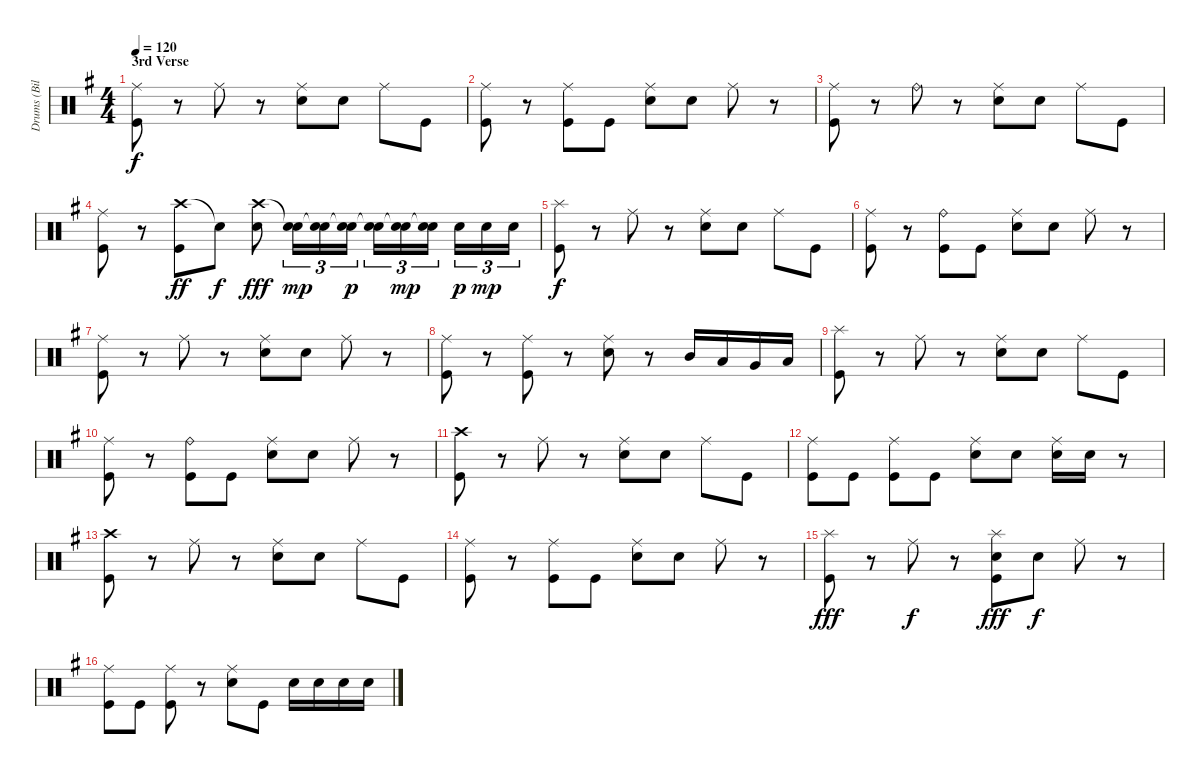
\track ("Drums (Bill Ward)" "Drums (Bil") {instrument percussion}
\staff {score}
\articulation defaults
\ts (4 4)
\section ("" "3rd Verse")
\tempo 120
\clef neutral
\ks g
("Ride (middle)" "Kick (hit)").8{dy f} r.8 "Ride (middle)".8 r.8 ("Ride (middle)" "Electric Snare (hit)").8 "Electric Snare (hit)".8 "Ride (middle)".8 "Kick (hit)".8 |
("Ride (middle)" "Kick (hit)").8 r.8 ("Ride (middle)" "Kick (hit)").8 "Kick (hit)".8 ("Ride (middle)" "Electric Snare (hit)").8 "Electric Snare (hit)".8 "Ride (middle)".8 r.8 |
("Ride (middle)" "Kick (hit)").8 r.8 "Ride (bell)".8 r.8 ("Ride (middle)" "Electric Snare (hit)").8 "Electric Snare (hit)".8 "Ride (middle)".8 "Kick (hit)".8 |
("Ride (middle)" "Kick (hit)").8 r.8 ("Crash high (hit)" "Kick (hit)").8{dy ff} "Snare (hit)"{t}.8{dy f} ("Crash high (hit)" "Electric Snare (hit)").8{dy fff} ("Snare (hit)"{t} "Electric Snare (hit)").16{tu (3 2) dy mp} ("Snare (hit)"{t} "Electric Snare (hit)").16{tu (3 2)} ("Snare (hit)"{t} "Electric Snare (hit)").16{tu (3 2) dy p} ("Snare (hit)"{t} "Electric Snare (hit)").16{tu (3 2)} ("Snare (hit)"{t} "Electric Snare (hit)").16{tu (3 2) dy mp} ("Snare (hit)"{t} "Electric Snare (hit)").16{tu (3 2) beam splitsecondary} "Electric Snare (hit)".16{tu (3 2) dy p} "Electric Snare (hit)".16{tu (3 2) dy mp} "Electric Snare (hit)".16{tu (3 2)} |
("Splash (hit)" "Kick (hit)").8{dy f} r.8 "Ride (middle)".8 r.8 ("Ride (middle)" "Electric Snare (hit)").8 "Electric Snare (hit)".8 "Ride (middle)".8 "Kick (hit)".8 |
("Ride (middle)" "Kick (hit)").8 r.8 ("Ride (bell)" "Kick (hit)").8 "Kick (hit)".8 ("Ride (middle)" "Electric Snare (hit)").8 "Electric Snare (hit)".8 "Ride (middle)".8 r.8 |
("Ride (middle)" "Kick (hit)").8 r.8 "Ride (middle)".8 r.8 ("Ride (middle)" "Electric Snare (hit)").8 "Electric Snare (hit)".8 "Ride (middle)".8 r.8 |
("Ride (middle)" "Kick (hit)").8 r.8 ("Ride (middle)" "Kick (hit)").8 r.8 ("Ride (middle)" "Electric Snare (hit)").8 r.8 "Mid Tom (hit)".16 "Low Tom (hit)".16 "Very Low Tom (hit)".16 "Low Floor Tom (hit)".16 |
("Splash (hit)" "Kick (hit)").8 r.8 "Ride (middle)".8 r.8 ("Ride (middle)" "Electric Snare (hit)").8 "Electric Snare (hit)".8 "Ride (middle)".8 "Kick (hit)".8 |
("Ride (middle)" "Kick (hit)").8 r.8 ("Ride (bell)" "Kick (hit)").8 "Kick (hit)".8 ("Ride (middle)" "Electric Snare (hit)").8 "Electric Snare (hit)".8 "Ride (middle)".8 r.8 |
("Crash high (hit)" "Kick (hit)").8 r.8 "Ride (middle)".8 r.8 ("Ride (middle)" "Electric Snare (hit)").8 "Electric Snare (hit)".8 "Ride (middle)".8 "Kick (hit)".8 |
("Ride (middle)" "Kick (hit)").8 "Kick (hit)".8 ("Ride (middle)" "Kick (hit)").8 "Kick (hit)".8 ("Ride (middle)" "Electric Snare (hit)").8 "Electric Snare (hit)".8 ("Ride (middle)" "Electric Snare (hit)").16 "Electric Snare (hit)".16 r.8 |
("Crash high (hit)" "Kick (hit)").8 r.8 "Ride (middle)".8 r.8 ("Ride (middle)" "Electric Snare (hit)").8 "Electric Snare (hit)".8 "Ride (middle)".8 "Kick (hit)".8 |
("Ride (middle)" "Kick (hit)").8 r.8 ("Ride (middle)" "Kick (hit)").8 "Kick (hit)".8 ("Ride (middle)" "Electric Snare (hit)").8 "Electric Snare (hit)".8 "Ride (middle)".8 r.8 |
("Splash (hit)" "Kick (hit)").8{dy fff} r.8 "Ride (middle)".8{dy f} r.8 ("Splash (hit)" "Electric Snare (hit)" "Kick (hit)").8{dy fff} "Electric Snare (hit)".8{dy f} "Ride (middle)".8 r.8 |
("Ride (middle)" "Kick (hit)").8 "Kick (hit)".8 ("Ride (middle)" "Kick (hit)").8 r.8 ("Ride (middle)" "Electric Snare (hit)").8 "Kick (hit)".8 "Electric Snare (hit)".16 "Electric Snare (hit)".16 "Electric Snare (hit)".16 "Electric Snare (hit)".16
